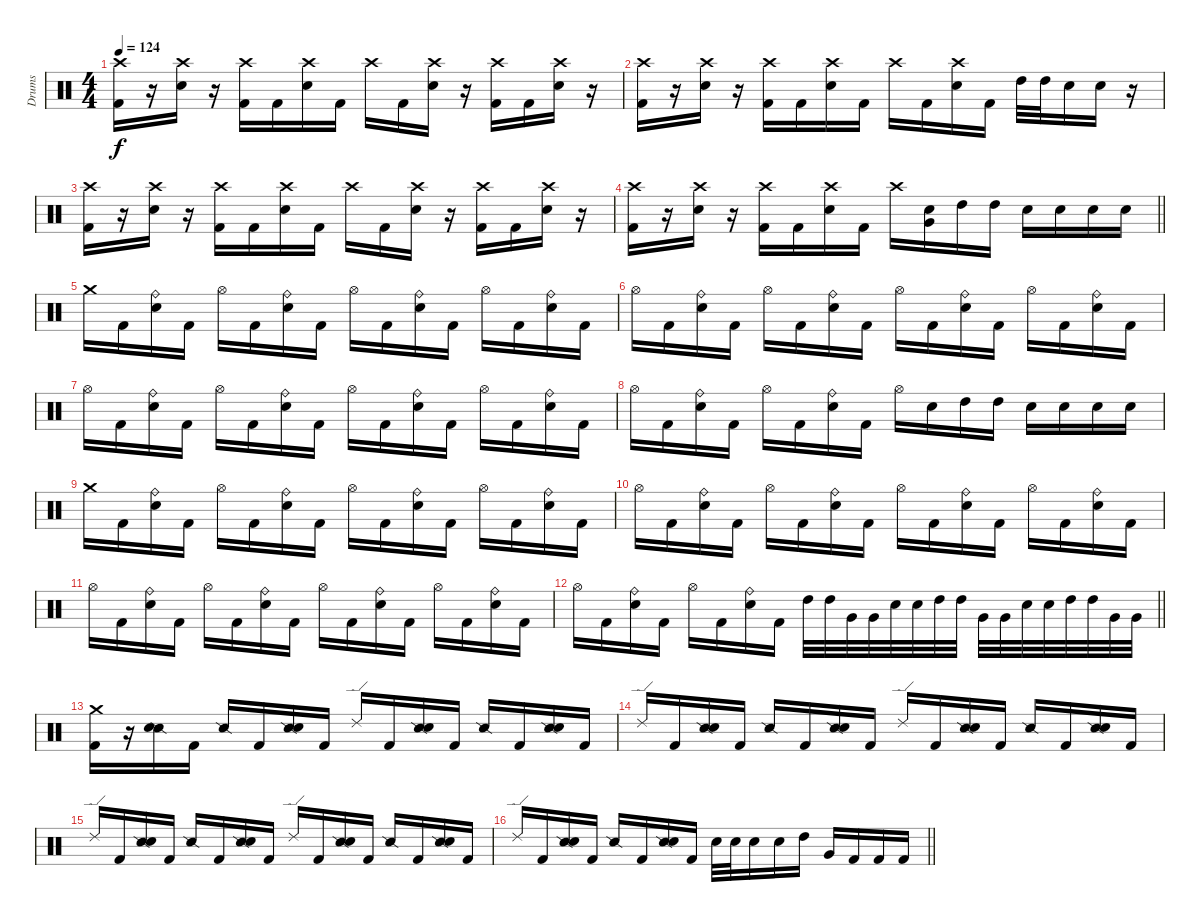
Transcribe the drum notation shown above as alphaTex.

\track ("Drums" "Drums") {instrument percussion}
\staff {score}
\articulation defaults
\ts (4 4)
\tempo 124
\clef neutral
\ks c
("Crash high (hit)" "Kick (hit) 2").16{dy f} r.16 ("Crash high (hit)" "Snare (hit) 2").16 r.16 ("Crash high (hit)" "Kick (hit) 2").16 "Kick (hit) 2".16 ("Crash high (hit)" "Snare (hit) 2").16 "Kick (hit) 2".16 "Crash high (hit)".16 "Kick (hit) 2".16 ("Crash high (hit)" "Snare (hit) 2").16 r.16 ("Crash high (hit)" "Kick (hit) 2").16 "Kick (hit) 2".16 ("Crash high (hit)" "Snare (hit) 2").16 r.16 |
("Crash high (hit)" "Kick (hit) 2").16 r.16 ("Crash high (hit)" "Snare (hit) 2").16 r.16 ("Crash high (hit)" "Kick (hit) 2").16 "Kick (hit) 2".16 ("Crash high (hit)" "Snare (hit) 2").16 "Kick (hit) 2".16 "Crash high (hit)".16 "Kick (hit) 2".16 ("Crash high (hit)" "Snare (hit) 2").16 "Kick (hit) 2".16 "High Tom (hit)".32 "High Tom (hit)".32 "Snare (hit) 2".16 "Snare (hit) 2".16 r.16 |
("Crash high (hit)" "Kick (hit) 2").16 r.16 ("Crash high (hit)" "Snare (hit) 2").16 r.16 ("Crash high (hit)" "Kick (hit) 2").16 "Kick (hit) 2".16 ("Crash high (hit)" "Snare (hit) 2").16 "Kick (hit) 2".16 "Crash high (hit)".16 "Kick (hit) 2".16 ("Crash high (hit)" "Snare (hit) 2").16 r.16 ("Crash high (hit)" "Kick (hit) 2").16 "Kick (hit) 2".16 ("Crash high (hit)" "Snare (hit) 2").16 r.16 |
\barLineRight lightlight
("Crash high (hit)" "Kick (hit) 2").16 r.16 ("Crash high (hit)" "Snare (hit) 2").16 r.16 ("Crash high (hit)" "Kick (hit) 2").16 "Kick (hit) 2".16 ("Crash high (hit)" "Snare (hit) 2").16 "Kick (hit) 2".16 "Crash high (hit)".16 ("Snare (hit) 2" "Very Low Tom (hit)").16 "High Tom (hit)".16 "High Tom (hit)".16 "Snare (hit) 2".16 "Snare (hit) 2".16 "Snare (hit) 2".16 "Snare (hit) 2".16 |
\section ("" "")
"Crash medium (hit)".16 "Kick (hit) 2".16 ("Ride (bell)" "Snare (hit) 2").16 "Kick (hit) 2".16 "Hi-Hat (open)".16 "Kick (hit) 2".16 ("Ride (bell)" "Snare (hit) 2").16 "Kick (hit) 2".16 "Hi-Hat (open)".16 "Kick (hit) 2".16 ("Ride (bell)" "Snare (hit) 2").16 "Kick (hit) 2".16 "Hi-Hat (open)".16 "Kick (hit) 2".16 ("Ride (bell)" "Snare (hit) 2").16 "Kick (hit) 2".16 |
"Hi-Hat (open)".16 "Kick (hit) 2".16 ("Ride (bell)" "Snare (hit) 2").16 "Kick (hit) 2".16 "Hi-Hat (open)".16 "Kick (hit) 2".16 ("Ride (bell)" "Snare (hit) 2").16 "Kick (hit) 2".16 "Hi-Hat (open)".16 "Kick (hit) 2".16 ("Ride (bell)" "Snare (hit) 2").16 "Kick (hit) 2".16 "Hi-Hat (open)".16 "Kick (hit) 2".16 ("Ride (bell)" "Snare (hit) 2").16 "Kick (hit) 2".16 |
"Hi-Hat (open)".16 "Kick (hit) 2".16 ("Ride (bell)" "Snare (hit) 2").16 "Kick (hit) 2".16 "Hi-Hat (open)".16 "Kick (hit) 2".16 ("Ride (bell)" "Snare (hit) 2").16 "Kick (hit) 2".16 "Hi-Hat (open)".16 "Kick (hit) 2".16 ("Ride (bell)" "Snare (hit) 2").16 "Kick (hit) 2".16 "Hi-Hat (open)".16 "Kick (hit) 2".16 ("Ride (bell)" "Snare (hit) 2").16 "Kick (hit) 2".16 |
"Hi-Hat (open)".16 "Kick (hit) 2".16 ("Ride (bell)" "Snare (hit) 2").16 "Kick (hit) 2".16 "Hi-Hat (open)".16 "Kick (hit) 2".16 ("Ride (bell)" "Snare (hit) 2").16 "Kick (hit) 2".16 "Hi-Hat (open)".16 "Snare (hit) 2".16 "High Tom (hit)".16 "High Tom (hit)".16 "Snare (hit) 2".16 "Snare (hit) 2".16 "Snare (hit) 2".16 "Snare (hit) 2".16 |
"Crash medium (hit)".16 "Kick (hit) 2".16 ("Ride (bell)" "Snare (hit) 2").16 "Kick (hit) 2".16 "Hi-Hat (open)".16 "Kick (hit) 2".16 ("Ride (bell)" "Snare (hit) 2").16 "Kick (hit) 2".16 "Hi-Hat (open)".16 "Kick (hit) 2".16 ("Ride (bell)" "Snare (hit) 2").16 "Kick (hit) 2".16 "Hi-Hat (open)".16 "Kick (hit) 2".16 ("Ride (bell)" "Snare (hit) 2").16 "Kick (hit) 2".16 |
"Hi-Hat (open)".16 "Kick (hit) 2".16 ("Ride (bell)" "Snare (hit) 2").16 "Kick (hit) 2".16 "Hi-Hat (open)".16 "Kick (hit) 2".16 ("Ride (bell)" "Snare (hit) 2").16 "Kick (hit) 2".16 "Hi-Hat (open)".16 "Kick (hit) 2".16 ("Ride (bell)" "Snare (hit) 2").16 "Kick (hit) 2".16 "Hi-Hat (open)".16 "Kick (hit) 2".16 ("Ride (bell)" "Snare (hit) 2").16 "Kick (hit) 2".16 |
"Hi-Hat (open)".16 "Kick (hit) 2".16 ("Ride (bell)" "Snare (hit) 2").16 "Kick (hit) 2".16 "Hi-Hat (open)".16 "Kick (hit) 2".16 ("Ride (bell)" "Snare (hit) 2").16 "Kick (hit) 2".16 "Hi-Hat (open)".16 "Kick (hit) 2".16 ("Ride (bell)" "Snare (hit) 2").16 "Kick (hit) 2".16 "Hi-Hat (open)".16 "Kick (hit) 2".16 ("Ride (bell)" "Snare (hit) 2").16 "Kick (hit) 2".16 |
\barLineRight lightlight "Hi-Hat (open)".16 "Kick (hit) 2".16
("Ride (bell)" "Snare (hit) 2").16 "Kick (hit) 2".16 "Hi-Hat (open)".16 "Kick (hit) 2".16 ("Ride (bell)" "Snare (hit) 2").16 "Kick (hit) 2".16 "High Tom (hit)".32 "High Tom (hit)".32 "Very Low Tom (hit)".32 "Very Low Tom (hit)".32 "Snare (hit) 2".32 "Snare (hit) 2".32 "High Tom (hit)".32 "High Tom (hit)".32 "Very Low Tom (hit)".32 "Very Low Tom (hit)".32 "Snare (hit) 2".32 "Snare (hit) 2".32 "High Tom (hit)".32 "High Tom (hit)".32 "Very Low Tom (hit)".32 "Very Low Tom (hit)".32 |
\section ("" "")
("Crash medium (hit)" "Kick (hit) 2").16 r.16 ("Snare (side stick) 2" "Snare (hit) 2").16 "Kick (hit) 2".16 "Snare (side stick) 2".16 "Kick (hit) 2".16 ("Snare (side stick) 2" "Snare (hit) 2").16 "Kick (hit) 2".16 "Ride (edge) 2".16 "Kick (hit) 2".16 ("Snare (side stick) 2" "Snare (hit) 2").16 "Kick (hit) 2".16 "Snare (side stick) 2".16 "Kick (hit) 2".16 ("Snare (side stick) 2" "Snare (hit) 2").16 "Kick (hit) 2".16 |
"Ride (edge) 2".16 "Kick (hit) 2".16 ("Snare (side stick) 2" "Snare (hit) 2").16 "Kick (hit) 2".16 "Snare (side stick) 2".16 "Kick (hit) 2".16 ("Snare (side stick) 2" "Snare (hit) 2").16 "Kick (hit) 2".16 "Ride (edge) 2".16 "Kick (hit) 2".16 ("Snare (side stick) 2" "Snare (hit) 2").16 "Kick (hit) 2".16 "Snare (side stick) 2".16 "Kick (hit) 2".16 ("Snare (side stick) 2" "Snare (hit) 2").16 "Kick (hit) 2".16 |
"Ride (edge) 2".16 "Kick (hit) 2".16 ("Snare (side stick) 2" "Snare (hit) 2").16 "Kick (hit) 2".16 "Snare (side stick) 2".16 "Kick (hit) 2".16 ("Snare (side stick) 2" "Snare (hit) 2").16 "Kick (hit) 2".16 "Ride (edge) 2".16 "Kick (hit) 2".16 ("Snare (side stick) 2" "Snare (hit) 2").16 "Kick (hit) 2".16 "Snare (side stick) 2".16 "Kick (hit) 2".16 ("Snare (side stick) 2" "Snare (hit) 2").16 "Kick (hit) 2".16 |
\barLineRight lightlight "Ride (edge) 2".16 "Kick (hit) 2".16
("Snare (side stick) 2" "Snare (hit) 2").16 "Kick (hit) 2".16 "Snare (side stick) 2".16 "Kick (hit) 2".16 ("Snare (side stick) 2" "Snare (hit) 2").16 "Kick (hit) 2".16 "Snare (hit) 2".32 "Snare (hit) 2".32 "Snare (hit) 2".16 "Snare (hit) 2".16 "High Tom (hit)".16 "Very Low Tom (hit)".16 "Kick (hit) 2".16 "Kick (hit) 2".16 "Kick (hit) 2".16
